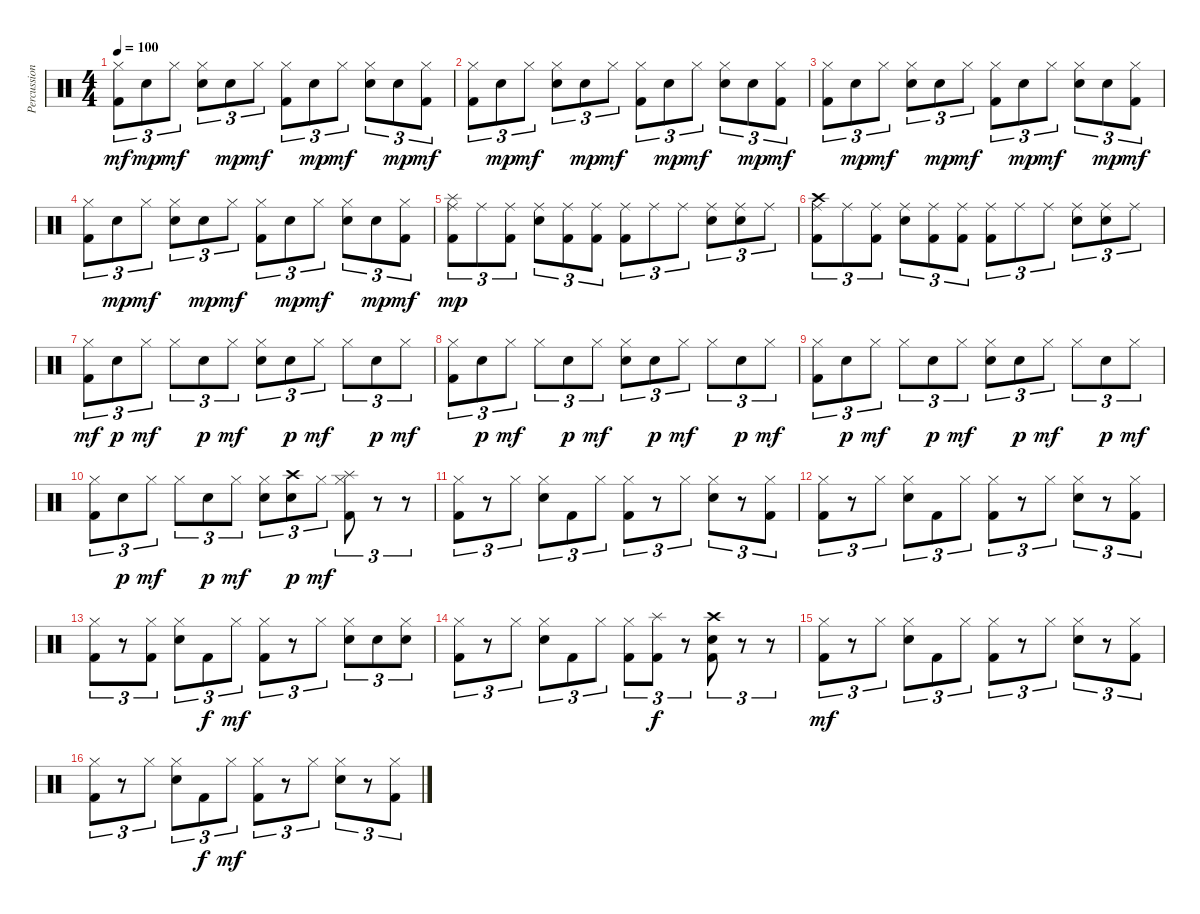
\track ("Percussion" "Percussion") {instrument percussion}
\staff {score}
\articulation defaults
\ts (4 4)
\tempo 100
\clef neutral
\ks c
("Kick (hit) 2" "Hi-Hat (closed)").8{tu (3 2) dy mf} "Snare (hit) 2".8{tu (3 2) dy mp} "Hi-Hat (closed)".8{tu (3 2) dy mf} ("Snare (hit) 2" "Hi-Hat (closed)").8{tu (3 2)} "Snare (hit) 2".8{tu (3 2) dy mp} "Hi-Hat (closed)".8{tu (3 2) dy mf} ("Kick (hit) 2" "Hi-Hat (closed)").8{tu (3 2)} "Snare (hit) 2".8{tu (3 2) dy mp} "Hi-Hat (closed)".8{tu (3 2) dy mf} ("Snare (hit) 2" "Hi-Hat (closed)").8{tu (3 2)} "Snare (hit) 2".8{tu (3 2) dy mp} ("Kick (hit) 2" "Hi-Hat (closed)").8{tu (3 2) dy mf} |
("Kick (hit) 2" "Hi-Hat (closed)").8{tu (3 2)} "Snare (hit) 2".8{tu (3 2) dy mp} "Hi-Hat (closed)".8{tu (3 2) dy mf} ("Snare (hit) 2" "Hi-Hat (closed)").8{tu (3 2)} "Snare (hit) 2".8{tu (3 2) dy mp} "Hi-Hat (closed)".8{tu (3 2) dy mf} ("Kick (hit) 2" "Hi-Hat (closed)").8{tu (3 2)} "Snare (hit) 2".8{tu (3 2) dy mp} "Hi-Hat (closed)".8{tu (3 2) dy mf} ("Snare (hit) 2" "Hi-Hat (closed)").8{tu (3 2)} "Snare (hit) 2".8{tu (3 2) dy mp} ("Kick (hit) 2" "Hi-Hat (closed)").8{tu (3 2) dy mf} |
("Kick (hit) 2" "Hi-Hat (closed)").8{tu (3 2)} "Snare (hit) 2".8{tu (3 2) dy mp} "Hi-Hat (closed)".8{tu (3 2) dy mf} ("Snare (hit) 2" "Hi-Hat (closed)").8{tu (3 2)} "Snare (hit) 2".8{tu (3 2) dy mp} "Hi-Hat (closed)".8{tu (3 2) dy mf} ("Kick (hit) 2" "Hi-Hat (closed)").8{tu (3 2)} "Snare (hit) 2".8{tu (3 2) dy mp} "Hi-Hat (closed)".8{tu (3 2) dy mf} ("Snare (hit) 2" "Hi-Hat (closed)").8{tu (3 2)} "Snare (hit) 2".8{tu (3 2) dy mp} ("Kick (hit) 2" "Hi-Hat (closed)").8{tu (3 2) dy mf} |
("Kick (hit) 2" "Hi-Hat (closed)").8{tu (3 2)} "Snare (hit) 2".8{tu (3 2) dy mp} "Hi-Hat (closed)".8{tu (3 2) dy mf} ("Snare (hit) 2" "Hi-Hat (closed)").8{tu (3 2)} "Snare (hit) 2".8{tu (3 2) dy mp} "Hi-Hat (closed)".8{tu (3 2) dy mf} ("Kick (hit) 2" "Hi-Hat (closed)").8{tu (3 2)} "Snare (hit) 2".8{tu (3 2) dy mp} "Hi-Hat (closed)".8{tu (3 2) dy mf} ("Snare (hit) 2" "Hi-Hat (closed)").8{tu (3 2)} "Snare (hit) 2".8{tu (3 2) dy mp} ("Kick (hit) 2" "Hi-Hat (closed)").8{tu (3 2) dy mf} |
("Splash (hit)" "Kick (hit) 2" "Ride (middle)").8{tu (3 2) dy mp} "Ride (middle)".8{tu (3 2)} ("Kick (hit) 2" "Ride (middle)").8{tu (3 2)} ("Snare (hit) 2" "Ride (middle)").8{tu (3 2)} ("Kick (hit) 2" "Ride (middle)").8{tu (3 2)} ("Kick (hit) 2" "Ride (middle)").8{tu (3 2)} ("Kick (hit) 2" "Ride (middle)").8{tu (3 2)} "Ride (middle)".8{tu (3 2)} "Ride (middle)".8{tu (3 2)} ("Snare (hit) 2" "Ride (middle)").8{tu (3 2)} ("Snare (hit) 2" "Ride (middle)").8{tu (3 2)} "Ride (middle)".8{tu (3 2)} |
("Crash high (hit)" "Kick (hit) 2" "Ride (middle)").8{tu (3 2)} "Ride (middle)".8{tu (3 2)} ("Kick (hit) 2" "Ride (middle)").8{tu (3 2)} ("Snare (hit) 2" "Ride (middle)").8{tu (3 2)} ("Kick (hit) 2" "Ride (middle)").8{tu (3 2)} ("Kick (hit) 2" "Ride (middle)").8{tu (3 2)} ("Kick (hit) 2" "Ride (middle)").8{tu (3 2)} "Ride (middle)".8{tu (3 2)} "Ride (middle)".8{tu (3 2)} ("Snare (hit) 2" "Ride (middle)").8{tu (3 2)} ("Snare (hit) 2" "Ride (middle)").8{tu (3 2)} "Ride (middle)".8{tu (3 2)} |
("Kick (hit) 2" "Hi-Hat (closed)").8{tu (3 2) dy mf} "Snare (hit) 2".8{tu (3 2) dy p} "Hi-Hat (closed)".8{tu (3 2) dy mf} "Hi-Hat (closed)".8{tu (3 2)} "Snare (hit) 2".8{tu (3 2) dy p} "Hi-Hat (closed)".8{tu (3 2) dy mf} ("Snare (hit) 2" "Hi-Hat (closed)").8{tu (3 2)} "Snare (hit) 2".8{tu (3 2) dy p} "Hi-Hat (closed)".8{tu (3 2) dy mf} "Hi-Hat (closed)".8{tu (3 2)} "Snare (hit) 2".8{tu (3 2) dy p} "Hi-Hat (closed)".8{tu (3 2) dy mf} |
("Kick (hit) 2" "Hi-Hat (closed)").8{tu (3 2)} "Snare (hit) 2".8{tu (3 2) dy p} "Hi-Hat (closed)".8{tu (3 2) dy mf} "Hi-Hat (closed)".8{tu (3 2)} "Snare (hit) 2".8{tu (3 2) dy p} "Hi-Hat (closed)".8{tu (3 2) dy mf} ("Snare (hit) 2" "Hi-Hat (closed)").8{tu (3 2)} "Snare (hit) 2".8{tu (3 2) dy p} "Hi-Hat (closed)".8{tu (3 2) dy mf} "Hi-Hat (closed)".8{tu (3 2)} "Snare (hit) 2".8{tu (3 2) dy p} "Hi-Hat (closed)".8{tu (3 2) dy mf} |
("Kick (hit) 2" "Hi-Hat (closed)").8{tu (3 2)} "Snare (hit) 2".8{tu (3 2) dy p} "Hi-Hat (closed)".8{tu (3 2) dy mf} "Hi-Hat (closed)".8{tu (3 2)} "Snare (hit) 2".8{tu (3 2) dy p} "Hi-Hat (closed)".8{tu (3 2) dy mf} ("Snare (hit) 2" "Hi-Hat (closed)").8{tu (3 2)} "Snare (hit) 2".8{tu (3 2) dy p} "Hi-Hat (closed)".8{tu (3 2) dy mf} "Hi-Hat (closed)".8{tu (3 2)} "Snare (hit) 2".8{tu (3 2) dy p} "Hi-Hat (closed)".8{tu (3 2) dy mf} |
("Kick (hit) 2" "Hi-Hat (closed)").8{tu (3 2)} "Snare (hit) 2".8{tu (3 2) dy p} "Hi-Hat (closed)".8{tu (3 2) dy mf} "Hi-Hat (closed)".8{tu (3 2)} "Snare (hit) 2".8{tu (3 2) dy p} "Hi-Hat (closed)".8{tu (3 2) dy mf} ("Snare (hit) 2" "Hi-Hat (closed)").8{tu (3 2)} ("Crash high (hit)" "Snare (hit) 2").8{tu (3 2) dy p} "Hi-Hat (closed)".8{tu (3 2) dy mf} ("Splash (hit)" "Kick (hit) 2" "Hi-Hat (closed)").8{tu (3 2)} r.8{tu (3 2)} r.8{tu (3 2)} |
("Kick (hit) 2" "Hi-Hat (closed)").8{tu (3 2)} r.8{tu (3 2)} "Hi-Hat (closed)".8{tu (3 2)} ("Snare (hit) 2" "Hi-Hat (closed)").8{tu (3 2)} "Kick (hit) 2".8{tu (3 2)} "Hi-Hat (closed)".8{tu (3 2)} ("Kick (hit) 2" "Hi-Hat (closed)").8{tu (3 2)} r.8{tu (3 2)} "Hi-Hat (closed)".8{tu (3 2)} ("Snare (hit) 2" "Hi-Hat (closed)").8{tu (3 2)} r.8{tu (3 2)} ("Kick (hit) 2" "Hi-Hat (closed)").8{tu (3 2)} |
("Kick (hit) 2" "Hi-Hat (closed)").8{tu (3 2)} r.8{tu (3 2)} "Hi-Hat (closed)".8{tu (3 2)} ("Snare (hit) 2" "Hi-Hat (closed)").8{tu (3 2)} "Kick (hit) 2".8{tu (3 2)} "Hi-Hat (closed)".8{tu (3 2)} ("Kick (hit) 2" "Hi-Hat (closed)").8{tu (3 2)} r.8{tu (3 2)} "Hi-Hat (closed)".8{tu (3 2)} ("Snare (hit) 2" "Hi-Hat (closed)").8{tu (3 2)} r.8{tu (3 2)} ("Kick (hit) 2" "Hi-Hat (closed)").8{tu (3 2)} |
("Kick (hit) 2" "Hi-Hat (closed)").8{tu (3 2)} r.8{tu (3 2)} ("Kick (hit) 2" "Hi-Hat (closed)").8{tu (3 2)} ("Snare (hit) 2" "Hi-Hat (closed)").8{tu (3 2)} "Kick (hit) 2".8{tu (3 2) dy f} "Hi-Hat (closed)".8{tu (3 2) dy mf} ("Kick (hit) 2" "Hi-Hat (closed)").8{tu (3 2)} r.8{tu (3 2)} "Hi-Hat (closed)".8{tu (3 2)} ("Snare (hit) 2" "Hi-Hat (closed)").8{tu (3 2)} "Snare (hit) 2".8{tu (3 2)} ("Snare (hit) 2" "Hi-Hat (closed)").8{tu (3 2)} |
("Kick (hit) 2" "Hi-Hat (closed)").8{tu (3 2)} r.8{tu (3 2)} "Hi-Hat (closed)".8{tu (3 2)} ("Snare (hit) 2" "Hi-Hat (closed)").8{tu (3 2)} "Kick (hit) 2".8{tu (3 2)} "Hi-Hat (closed)".8{tu (3 2)} ("Kick (hit) 2" "Hi-Hat (closed)").8{tu (3 2)} ("Splash (hit)" "Kick (hit) 2").8{tu (3 2) dy f} r.8{tu (3 2)} ("Crash high (hit)" "Snare (hit) 2" "Kick (hit) 2").8{tu (3 2)} r.8{tu (3 2)} r.8{tu (3 2)} |
("Kick (hit) 2" "Hi-Hat (closed)").8{tu (3 2) dy mf} r.8{tu (3 2)} "Hi-Hat (closed)".8{tu (3 2)} ("Snare (hit) 2" "Hi-Hat (closed)").8{tu (3 2)} "Kick (hit) 2".8{tu (3 2)} "Hi-Hat (closed)".8{tu (3 2)} ("Kick (hit) 2" "Hi-Hat (closed)").8{tu (3 2)} r.8{tu (3 2)} "Hi-Hat (closed)".8{tu (3 2)} ("Snare (hit) 2" "Hi-Hat (closed)").8{tu (3 2)} r.8{tu (3 2)} ("Kick (hit) 2" "Hi-Hat (closed)").8{tu (3 2)} |
("Kick (hit) 2" "Hi-Hat (closed)").8{tu (3 2)} r.8{tu (3 2)} "Hi-Hat (closed)".8{tu (3 2)} ("Snare (hit) 2" "Hi-Hat (closed)").8{tu (3 2)} "Kick (hit) 2".8{tu (3 2) dy f} "Hi-Hat (closed)".8{tu (3 2) dy mf} ("Kick (hit) 2" "Hi-Hat (closed)").8{tu (3 2)} r.8{tu (3 2)} "Hi-Hat (closed)".8{tu (3 2)} ("Snare (hit) 2" "Hi-Hat (closed)").8{tu (3 2)} r.8{tu (3 2)} ("Kick (hit) 2" "Hi-Hat (closed)").8{tu (3 2)}
